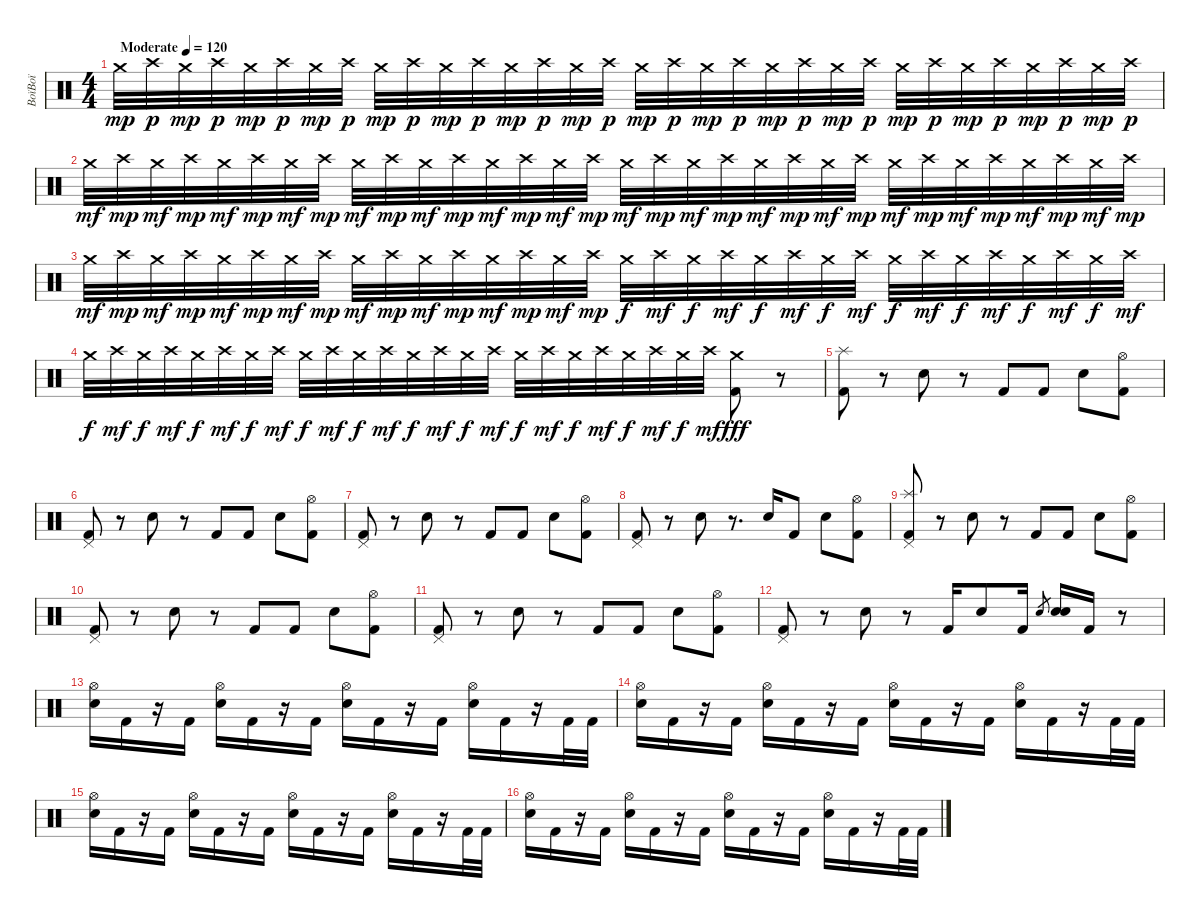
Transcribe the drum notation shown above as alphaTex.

\track ("BoïBoï" "BoïBoï") {instrument percussion}
\staff {score}
\articulation defaults
\ts (4 4)
\tempo (120 "Moderate")
\clef neutral
\ks c "Crash medium (hit)".32{dy mp} "Crash high (hit)".32{dy p} "Crash medium (hit)".32{dy mp} "Crash high (hit)".32{dy p} "Crash medium (hit)".32{dy mp} "Crash high (hit)".32{dy p} "Crash medium (hit)".32{dy mp} "Crash high (hit)".32{dy p} "Crash medium (hit)".32{dy mp} "Crash high (hit)".32{dy p} "Crash medium (hit)".32{dy mp} "Crash high (hit)".32{dy p} "Crash medium (hit)".32{dy mp} "Crash high (hit)".32{dy p} "Crash medium (hit)".32{dy mp} "Crash high (hit)".32{dy p} "Crash medium (hit)".32{dy mp} "Crash high (hit)".32{dy p} "Crash medium (hit)".32{dy mp} "Crash high (hit)".32{dy p} "Crash medium (hit)".32{dy mp} "Crash high (hit)".32{dy p} "Crash medium (hit)".32{dy mp} "Crash high (hit)".32{dy p} "Crash medium (hit)".32{dy mp} "Crash high (hit)".32{dy p} "Crash medium (hit)".32{dy mp} "Crash high (hit)".32{dy p} "Crash medium (hit)".32{dy mp} "Crash high (hit)".32{dy p} "Crash medium (hit)".32{dy mp} "Crash high (hit)".32{dy p}
|
"Crash medium (hit)".32{dy mf} "Crash high (hit)".32{dy mp} "Crash medium (hit)".32{dy mf} "Crash high (hit)".32{dy mp} "Crash medium (hit)".32{dy mf} "Crash high (hit)".32{dy mp} "Crash medium (hit)".32{dy mf} "Crash high (hit)".32{dy mp} "Crash medium (hit)".32{dy mf} "Crash high (hit)".32{dy mp} "Crash medium (hit)".32{dy mf} "Crash high (hit)".32{dy mp} "Crash medium (hit)".32{dy mf} "Crash high (hit)".32{dy mp} "Crash medium (hit)".32{dy mf} "Crash high (hit)".32{dy mp} "Crash medium (hit)".32{dy mf} "Crash high (hit)".32{dy mp} "Crash medium (hit)".32{dy mf} "Crash high (hit)".32{dy mp} "Crash medium (hit)".32{dy mf} "Crash high (hit)".32{dy mp} "Crash medium (hit)".32{dy mf} "Crash high (hit)".32{dy mp} "Crash medium (hit)".32{dy mf} "Crash high (hit)".32{dy mp} "Crash medium (hit)".32{dy mf} "Crash high (hit)".32{dy mp} "Crash medium (hit)".32{dy mf} "Crash high (hit)".32{dy mp} "Crash medium (hit)".32{dy mf} "Crash high (hit)".32{dy mp} |
"Crash medium (hit)".32{dy mf} "Crash high (hit)".32{dy mp} "Crash medium (hit)".32{dy mf} "Crash high (hit)".32{dy mp} "Crash medium (hit)".32{dy mf} "Crash high (hit)".32{dy mp} "Crash medium (hit)".32{dy mf} "Crash high (hit)".32{dy mp} "Crash medium (hit)".32{dy mf} "Crash high (hit)".32{dy mp} "Crash medium (hit)".32{dy mf} "Crash high (hit)".32{dy mp} "Crash medium (hit)".32{dy mf} "Crash high (hit)".32{dy mp} "Crash medium (hit)".32{dy mf} "Crash high (hit)".32{dy mp} "Crash medium (hit)".32{dy f} "Crash high (hit)".32{dy mf} "Crash medium (hit)".32{dy f} "Crash high (hit)".32{dy mf} "Crash medium (hit)".32{dy f} "Crash high (hit)".32{dy mf} "Crash medium (hit)".32{dy f} "Crash high (hit)".32{dy mf} "Crash medium (hit)".32{dy f} "Crash high (hit)".32{dy mf} "Crash medium (hit)".32{dy f} "Crash high (hit)".32{dy mf} "Crash medium (hit)".32{dy f} "Crash high (hit)".32{dy mf} "Crash medium (hit)".32{dy f} "Crash high (hit)".32{dy mf} |
"Crash medium (hit)".32{dy f} "Crash high (hit)".32{dy mf} "Crash medium (hit)".32{dy f} "Crash high (hit)".32{dy mf} "Crash medium (hit)".32{dy f} "Crash high (hit)".32{dy mf} "Crash medium (hit)".32{dy f} "Crash high (hit)".32{dy mf} "Crash medium (hit)".32{dy f} "Crash high (hit)".32{dy mf} "Crash medium (hit)".32{dy f} "Crash high (hit)".32{dy mf} "Crash medium (hit)".32{dy f} "Crash high (hit)".32{dy mf} "Crash medium (hit)".32{dy f} "Crash high (hit)".32{dy mf} "Crash medium (hit)".32{dy f} "Crash high (hit)".32{dy mf} "Crash medium (hit)".32{dy f} "Crash high (hit)".32{dy mf} "Crash medium (hit)".32{dy f} "Crash high (hit)".32{dy mf} "Crash medium (hit)".32{dy f} "Crash high (hit)".32{dy mf} ("Crash medium (hit)" "Kick (hit) 2").8{dy fff} r.8 |
("Splash (hit)" "Kick (hit) 2").8 r.8 "Electric Snare (hit)".8 r.8 "Kick (hit) 2".8 "Kick (hit) 2".8 "Electric Snare (hit)".8 ("Hi-Hat (open)" "Kick (hit) 2").8 |
("Pedal Hi-Hat (hit)" "Kick (hit) 2").8 r.8 "Electric Snare (hit)".8 r.8 "Kick (hit) 2".8 "Kick (hit) 2".8 "Electric Snare (hit)".8 ("Hi-Hat (open)" "Kick (hit) 2").8 |
("Pedal Hi-Hat (hit)" "Kick (hit) 2").8 r.8 "Electric Snare (hit)".8 r.8 "Kick (hit) 2".8 "Kick (hit) 2".8 "Electric Snare (hit)".8 ("Hi-Hat (open)" "Kick (hit) 2").8 |
("Pedal Hi-Hat (hit)" "Kick (hit) 2").8 r.8 "Electric Snare (hit)".8 r.8{d} "Electric Snare (hit)".16 "Kick (hit) 2".8 "Electric Snare (hit)".8 ("Hi-Hat (open)" "Kick (hit) 2").8 |
("Splash (hit)" "Pedal Hi-Hat (hit)" "Kick (hit) 2").8 r.8 "Electric Snare (hit)".8 r.8 "Kick (hit) 2".8 "Kick (hit) 2".8 "Electric Snare (hit)".8 ("Hi-Hat (open)" "Kick (hit) 2").8 |
("Pedal Hi-Hat (hit)" "Kick (hit) 2").8 r.8 "Electric Snare (hit)".8 r.8 "Kick (hit) 2".8 "Kick (hit) 2".8 "Electric Snare (hit)".8 ("Hi-Hat (open)" "Kick (hit) 2").8 |
("Pedal Hi-Hat (hit)" "Kick (hit) 2").8 r.8 "Electric Snare (hit)".8 r.8 "Kick (hit) 2".8 "Kick (hit) 2".8 "Electric Snare (hit)".8 ("Hi-Hat (open)" "Kick (hit) 2").8 |
("Pedal Hi-Hat (hit)" "Kick (hit) 2").8 r.8 "Electric Snare (hit)".8 r.8 "Kick (hit) 2".16 "Electric Snare (hit)".8 "Kick (hit) 2".16 "Electric Snare (hit)".8{gr} ("Electric Snare (hit)" "Snare (hit) 2").16 "Kick (hit) 2".16 r.8 |
("Hi-Hat (open)" "Electric Snare (hit)").16 "Kick (hit) 2".16 r.16 "Kick (hit) 2".16 ("Hi-Hat (open)" "Electric Snare (hit)").16 "Kick (hit) 2".16 r.16 "Kick (hit) 2".16 ("Hi-Hat (open)" "Electric Snare (hit)").16 "Kick (hit) 2".16 r.16 "Kick (hit) 2".16 ("Hi-Hat (open)" "Electric Snare (hit)").16 "Kick (hit) 2".16 r.16 "Kick (hit) 2".32 "Kick (hit) 2".32 |
("Hi-Hat (open)" "Electric Snare (hit)").16 "Kick (hit) 2".16 r.16 "Kick (hit) 2".16 ("Hi-Hat (open)" "Electric Snare (hit)").16 "Kick (hit) 2".16 r.16 "Kick (hit) 2".16 ("Hi-Hat (open)" "Electric Snare (hit)").16 "Kick (hit) 2".16 r.16 "Kick (hit) 2".16 ("Hi-Hat (open)" "Electric Snare (hit)").16 "Kick (hit) 2".16 r.16 "Kick (hit) 2".32 "Kick (hit) 2".32 |
("Hi-Hat (open)" "Electric Snare (hit)").16 "Kick (hit) 2".16 r.16 "Kick (hit) 2".16 ("Hi-Hat (open)" "Electric Snare (hit)").16 "Kick (hit) 2".16 r.16 "Kick (hit) 2".16 ("Hi-Hat (open)" "Electric Snare (hit)").16 "Kick (hit) 2".16 r.16 "Kick (hit) 2".16 ("Hi-Hat (open)" "Electric Snare (hit)").16 "Kick (hit) 2".16 r.16 "Kick (hit) 2".32 "Kick (hit) 2".32 |
("Hi-Hat (open)" "Electric Snare (hit)").16 "Kick (hit) 2".16 r.16 "Kick (hit) 2".16 ("Hi-Hat (open)" "Electric Snare (hit)").16 "Kick (hit) 2".16 r.16 "Kick (hit) 2".16 ("Hi-Hat (open)" "Electric Snare (hit)").16 "Kick (hit) 2".16 r.16 "Kick (hit) 2".16 ("Hi-Hat (open)" "Electric Snare (hit)").16 "Kick (hit) 2".16 r.16 "Kick (hit) 2".32 "Kick (hit) 2".32
